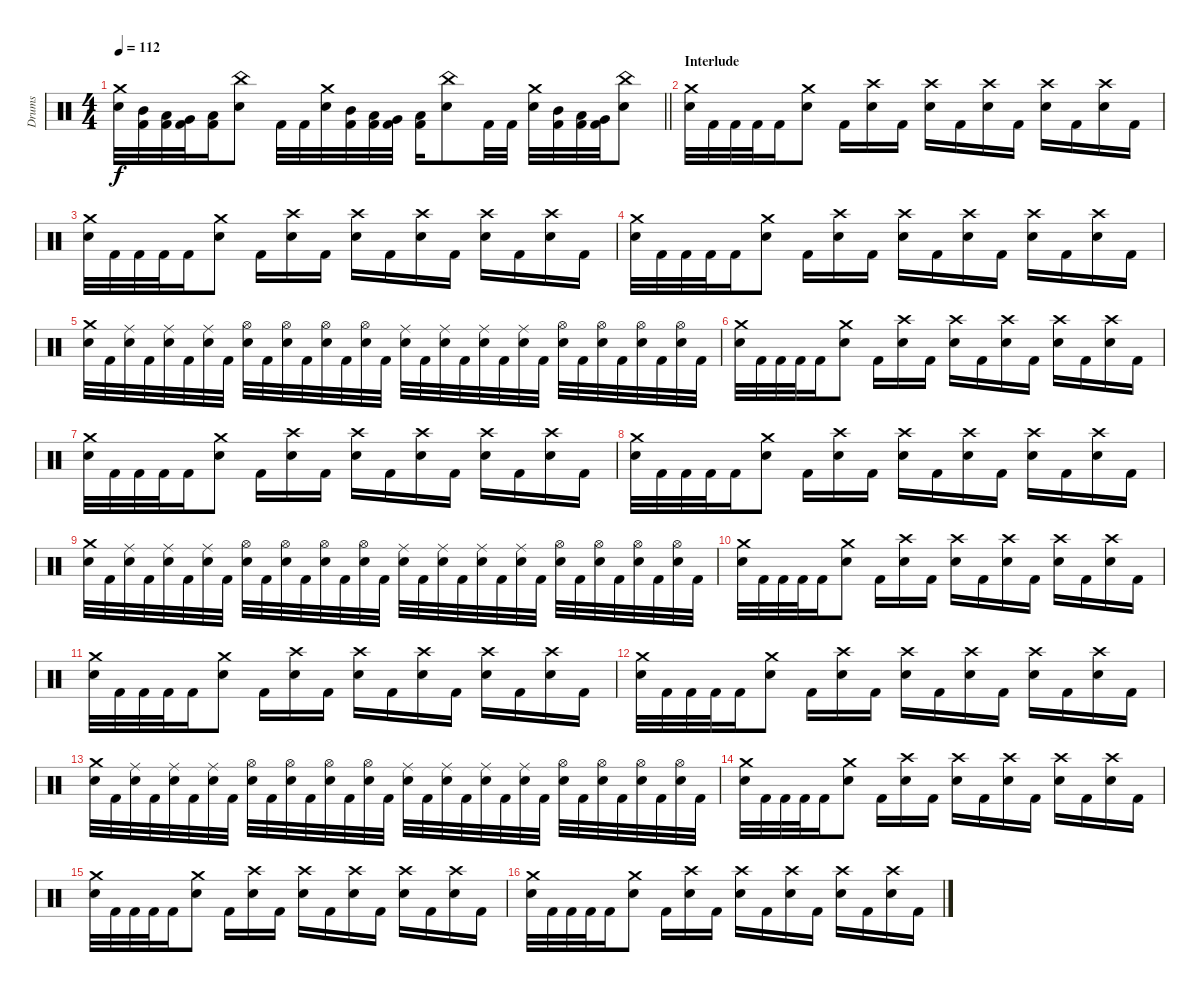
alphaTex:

\track ("Drums" "Drums") {instrument percussion}
\staff {score}
\articulation defaults
\ts (4 4)
\tempo 112
\clef neutral
\barLineRight lightlight
\ks c
("Snare (hit) 2" "Crash medium (hit)").32{dy f} ("Mid Tom (hit)" "Kick (hit) 2").32 ("Low Tom (hit)" "Kick (hit) 2").32 ("Very Low Tom (hit)" "Kick (hit) 2").32 ("Low Floor Tom (hit)" "Kick (hit) 2").16 ("Snare (hit) 2" "China (hit)").8 "Kick (hit) 2".32 "Kick (hit) 2".32 ("Snare (hit) 2" "Crash medium (hit)").32 ("Mid Tom (hit)" "Kick (hit) 2").32 ("Low Tom (hit)" "Kick (hit) 2").32 ("Very Low Tom (hit)" "Kick (hit) 2").32 ("Low Floor Tom (hit)" "Kick (hit) 2").16 ("Snare (hit) 2" "China (hit)").8 "Kick (hit) 2".32 "Kick (hit) 2".32 ("Snare (hit) 2" "Crash medium (hit)").32 ("Mid Tom (hit)" "Kick (hit) 2").32 ("Low Tom (hit)" "Kick (hit) 2").32 ("Very Low Tom (hit)" "Kick (hit) 2").32 ("Snare (hit) 2" "China (hit)").8 |
\section ("" "Interlude")
("Snare (hit) 2" "Crash medium (hit)").32 "Kick (hit) 2".32 "Kick (hit) 2".32 "Kick (hit) 2".32 "Kick (hit) 2".16 ("Snare (hit) 2" "Crash medium (hit)").8 "Kick (hit) 2".16 ("Snare (hit) 2" "Crash high (hit)").16 "Kick (hit) 2".16 ("Snare (hit) 2" "Crash high (hit)").16 "Kick (hit) 2".16 ("Snare (hit) 2" "Crash high (hit)").16 "Kick (hit) 2".16 ("Snare (hit) 2" "Crash high (hit)").16 "Kick (hit) 2".16 ("Snare (hit) 2" "Crash high (hit)").16 "Kick (hit) 2".16 |
("Snare (hit) 2" "Crash medium (hit)").32 "Kick (hit) 2".32 "Kick (hit) 2".32 "Kick (hit) 2".32 "Kick (hit) 2".16 ("Snare (hit) 2" "Crash medium (hit)").8 "Kick (hit) 2".16 ("Snare (hit) 2" "Crash high (hit)").16 "Kick (hit) 2".16 ("Snare (hit) 2" "Crash high (hit)").16 "Kick (hit) 2".16 ("Snare (hit) 2" "Crash high (hit)").16 "Kick (hit) 2".16 ("Snare (hit) 2" "Crash high (hit)").16 "Kick (hit) 2".16 ("Snare (hit) 2" "Crash high (hit)").16 "Kick (hit) 2".16 |
("Snare (hit) 2" "Crash medium (hit)").32 "Kick (hit) 2".32 "Kick (hit) 2".32 "Kick (hit) 2".32 "Kick (hit) 2".16 ("Snare (hit) 2" "Crash medium (hit)").8 "Kick (hit) 2".16 ("Snare (hit) 2" "Crash high (hit)").16 "Kick (hit) 2".16 ("Snare (hit) 2" "Crash high (hit)").16 "Kick (hit) 2".16 ("Snare (hit) 2" "Crash high (hit)").16 "Kick (hit) 2".16 ("Snare (hit) 2" "Crash high (hit)").16 "Kick (hit) 2".16 ("Snare (hit) 2" "Crash high (hit)").16 "Kick (hit) 2".16 |
("Snare (hit) 2" "Crash medium (hit)").32 "Kick (hit) 2".32 ("Ride (middle)" "Snare (hit) 2").32 "Kick (hit) 2".32 ("Ride (middle)" "Snare (hit) 2").32 "Kick (hit) 2".32 ("Ride (middle)" "Snare (hit) 2").32 "Kick (hit) 2".32 ("Hi-Hat (open)" "Snare (hit) 2").32 "Kick (hit) 2".32 ("Hi-Hat (open)" "Snare (hit) 2").32 "Kick (hit) 2".32 ("Hi-Hat (open)" "Snare (hit) 2").32 "Kick (hit) 2".32 ("Hi-Hat (open)" "Snare (hit) 2").32 "Kick (hit) 2".32 ("Ride (middle)" "Snare (hit) 2").32 "Kick (hit) 2".32 ("Ride (middle)" "Snare (hit) 2").32 "Kick (hit) 2".32 ("Ride (middle)" "Snare (hit) 2").32 "Kick (hit) 2".32 ("Ride (middle)" "Snare (hit) 2").32 "Kick (hit) 2".32 ("Hi-Hat (open)" "Snare (hit) 2").32 "Kick (hit) 2".32 ("Hi-Hat (open)" "Snare (hit) 2").32 "Kick (hit) 2".32 ("Hi-Hat (open)" "Snare (hit) 2").32 "Kick (hit) 2".32 ("Hi-Hat (open)" "Snare (hit) 2").32 "Kick (hit) 2".32 |
("Snare (hit) 2" "Crash medium (hit)").32 "Kick (hit) 2".32 "Kick (hit) 2".32 "Kick (hit) 2".32 "Kick (hit) 2".16 ("Snare (hit) 2" "Crash medium (hit)").8 "Kick (hit) 2".16 ("Snare (hit) 2" "Crash high (hit)").16 "Kick (hit) 2".16 ("Snare (hit) 2" "Crash high (hit)").16 "Kick (hit) 2".16 ("Snare (hit) 2" "Crash high (hit)").16 "Kick (hit) 2".16 ("Snare (hit) 2" "Crash high (hit)").16 "Kick (hit) 2".16 ("Snare (hit) 2" "Crash high (hit)").16 "Kick (hit) 2".16 |
("Snare (hit) 2" "Crash medium (hit)").32 "Kick (hit) 2".32 "Kick (hit) 2".32 "Kick (hit) 2".32 "Kick (hit) 2".16 ("Snare (hit) 2" "Crash medium (hit)").8 "Kick (hit) 2".16 ("Snare (hit) 2" "Crash high (hit)").16 "Kick (hit) 2".16 ("Snare (hit) 2" "Crash high (hit)").16 "Kick (hit) 2".16 ("Snare (hit) 2" "Crash high (hit)").16 "Kick (hit) 2".16 ("Snare (hit) 2" "Crash high (hit)").16 "Kick (hit) 2".16 ("Snare (hit) 2" "Crash high (hit)").16 "Kick (hit) 2".16 |
("Snare (hit) 2" "Crash medium (hit)").32 "Kick (hit) 2".32 "Kick (hit) 2".32 "Kick (hit) 2".32 "Kick (hit) 2".16 ("Snare (hit) 2" "Crash medium (hit)").8 "Kick (hit) 2".16 ("Snare (hit) 2" "Crash high (hit)").16 "Kick (hit) 2".16 ("Snare (hit) 2" "Crash high (hit)").16 "Kick (hit) 2".16 ("Snare (hit) 2" "Crash high (hit)").16 "Kick (hit) 2".16 ("Snare (hit) 2" "Crash high (hit)").16 "Kick (hit) 2".16 ("Snare (hit) 2" "Crash high (hit)").16 "Kick (hit) 2".16 |
("Snare (hit) 2" "Crash medium (hit)").32 "Kick (hit) 2".32 ("Ride (middle)" "Snare (hit) 2").32 "Kick (hit) 2".32 ("Ride (middle)" "Snare (hit) 2").32 "Kick (hit) 2".32 ("Ride (middle)" "Snare (hit) 2").32 "Kick (hit) 2".32 ("Hi-Hat (open)" "Snare (hit) 2").32 "Kick (hit) 2".32 ("Hi-Hat (open)" "Snare (hit) 2").32 "Kick (hit) 2".32 ("Hi-Hat (open)" "Snare (hit) 2").32 "Kick (hit) 2".32 ("Hi-Hat (open)" "Snare (hit) 2").32 "Kick (hit) 2".32 ("Ride (middle)" "Snare (hit) 2").32 "Kick (hit) 2".32 ("Ride (middle)" "Snare (hit) 2").32 "Kick (hit) 2".32 ("Ride (middle)" "Snare (hit) 2").32 "Kick (hit) 2".32 ("Ride (middle)" "Snare (hit) 2").32 "Kick (hit) 2".32 ("Hi-Hat (open)" "Snare (hit) 2").32 "Kick (hit) 2".32 ("Hi-Hat (open)" "Snare (hit) 2").32 "Kick (hit) 2".32 ("Hi-Hat (open)" "Snare (hit) 2").32 "Kick (hit) 2".32 ("Hi-Hat (open)" "Snare (hit) 2").32 "Kick (hit) 2".32 |
("Snare (hit) 2" "Crash medium (hit)").32 "Kick (hit) 2".32 "Kick (hit) 2".32 "Kick (hit) 2".32 "Kick (hit) 2".16 ("Snare (hit) 2" "Crash medium (hit)").8 "Kick (hit) 2".16 ("Snare (hit) 2" "Crash high (hit)").16 "Kick (hit) 2".16 ("Snare (hit) 2" "Crash high (hit)").16 "Kick (hit) 2".16 ("Snare (hit) 2" "Crash high (hit)").16 "Kick (hit) 2".16 ("Snare (hit) 2" "Crash high (hit)").16 "Kick (hit) 2".16 ("Snare (hit) 2" "Crash high (hit)").16 "Kick (hit) 2".16 |
("Snare (hit) 2" "Crash medium (hit)").32 "Kick (hit) 2".32 "Kick (hit) 2".32 "Kick (hit) 2".32 "Kick (hit) 2".16 ("Snare (hit) 2" "Crash medium (hit)").8 "Kick (hit) 2".16 ("Snare (hit) 2" "Crash high (hit)").16 "Kick (hit) 2".16 ("Snare (hit) 2" "Crash high (hit)").16 "Kick (hit) 2".16 ("Snare (hit) 2" "Crash high (hit)").16 "Kick (hit) 2".16 ("Snare (hit) 2" "Crash high (hit)").16 "Kick (hit) 2".16 ("Snare (hit) 2" "Crash high (hit)").16 "Kick (hit) 2".16 |
("Snare (hit) 2" "Crash medium (hit)").32 "Kick (hit) 2".32 "Kick (hit) 2".32 "Kick (hit) 2".32 "Kick (hit) 2".16 ("Snare (hit) 2" "Crash medium (hit)").8 "Kick (hit) 2".16 ("Snare (hit) 2" "Crash high (hit)").16 "Kick (hit) 2".16 ("Snare (hit) 2" "Crash high (hit)").16 "Kick (hit) 2".16 ("Snare (hit) 2" "Crash high (hit)").16 "Kick (hit) 2".16 ("Snare (hit) 2" "Crash high (hit)").16 "Kick (hit) 2".16 ("Snare (hit) 2" "Crash high (hit)").16 "Kick (hit) 2".16 |
("Snare (hit) 2" "Crash medium (hit)").32 "Kick (hit) 2".32 ("Ride (middle)" "Snare (hit) 2").32 "Kick (hit) 2".32 ("Ride (middle)" "Snare (hit) 2").32 "Kick (hit) 2".32 ("Ride (middle)" "Snare (hit) 2").32 "Kick (hit) 2".32 ("Hi-Hat (open)" "Snare (hit) 2").32 "Kick (hit) 2".32 ("Hi-Hat (open)" "Snare (hit) 2").32 "Kick (hit) 2".32 ("Hi-Hat (open)" "Snare (hit) 2").32 "Kick (hit) 2".32 ("Hi-Hat (open)" "Snare (hit) 2").32 "Kick (hit) 2".32 ("Ride (middle)" "Snare (hit) 2").32 "Kick (hit) 2".32 ("Ride (middle)" "Snare (hit) 2").32 "Kick (hit) 2".32 ("Ride (middle)" "Snare (hit) 2").32 "Kick (hit) 2".32 ("Ride (middle)" "Snare (hit) 2").32 "Kick (hit) 2".32 ("Hi-Hat (open)" "Snare (hit) 2").32 "Kick (hit) 2".32 ("Hi-Hat (open)" "Snare (hit) 2").32 "Kick (hit) 2".32 ("Hi-Hat (open)" "Snare (hit) 2").32 "Kick (hit) 2".32 ("Hi-Hat (open)" "Snare (hit) 2").32 "Kick (hit) 2".32 |
("Snare (hit) 2" "Crash medium (hit)").32 "Kick (hit) 2".32 "Kick (hit) 2".32 "Kick (hit) 2".32 "Kick (hit) 2".16 ("Snare (hit) 2" "Crash medium (hit)").8 "Kick (hit) 2".16 ("Snare (hit) 2" "Crash high (hit)").16 "Kick (hit) 2".16 ("Snare (hit) 2" "Crash high (hit)").16 "Kick (hit) 2".16 ("Snare (hit) 2" "Crash high (hit)").16 "Kick (hit) 2".16 ("Snare (hit) 2" "Crash high (hit)").16 "Kick (hit) 2".16 ("Snare (hit) 2" "Crash high (hit)").16 "Kick (hit) 2".16 |
("Snare (hit) 2" "Crash medium (hit)").32 "Kick (hit) 2".32 "Kick (hit) 2".32 "Kick (hit) 2".32 "Kick (hit) 2".16 ("Snare (hit) 2" "Crash medium (hit)").8 "Kick (hit) 2".16 ("Snare (hit) 2" "Crash high (hit)").16 "Kick (hit) 2".16 ("Snare (hit) 2" "Crash high (hit)").16 "Kick (hit) 2".16 ("Snare (hit) 2" "Crash high (hit)").16 "Kick (hit) 2".16 ("Snare (hit) 2" "Crash high (hit)").16 "Kick (hit) 2".16 ("Snare (hit) 2" "Crash high (hit)").16 "Kick (hit) 2".16 |
("Snare (hit) 2" "Crash medium (hit)").32 "Kick (hit) 2".32 "Kick (hit) 2".32 "Kick (hit) 2".32 "Kick (hit) 2".16 ("Snare (hit) 2" "Crash medium (hit)").8 "Kick (hit) 2".16 ("Snare (hit) 2" "Crash high (hit)").16 "Kick (hit) 2".16 ("Snare (hit) 2" "Crash high (hit)").16 "Kick (hit) 2".16 ("Snare (hit) 2" "Crash high (hit)").16 "Kick (hit) 2".16 ("Snare (hit) 2" "Crash high (hit)").16 "Kick (hit) 2".16 ("Snare (hit) 2" "Crash high (hit)").16 "Kick (hit) 2".16
